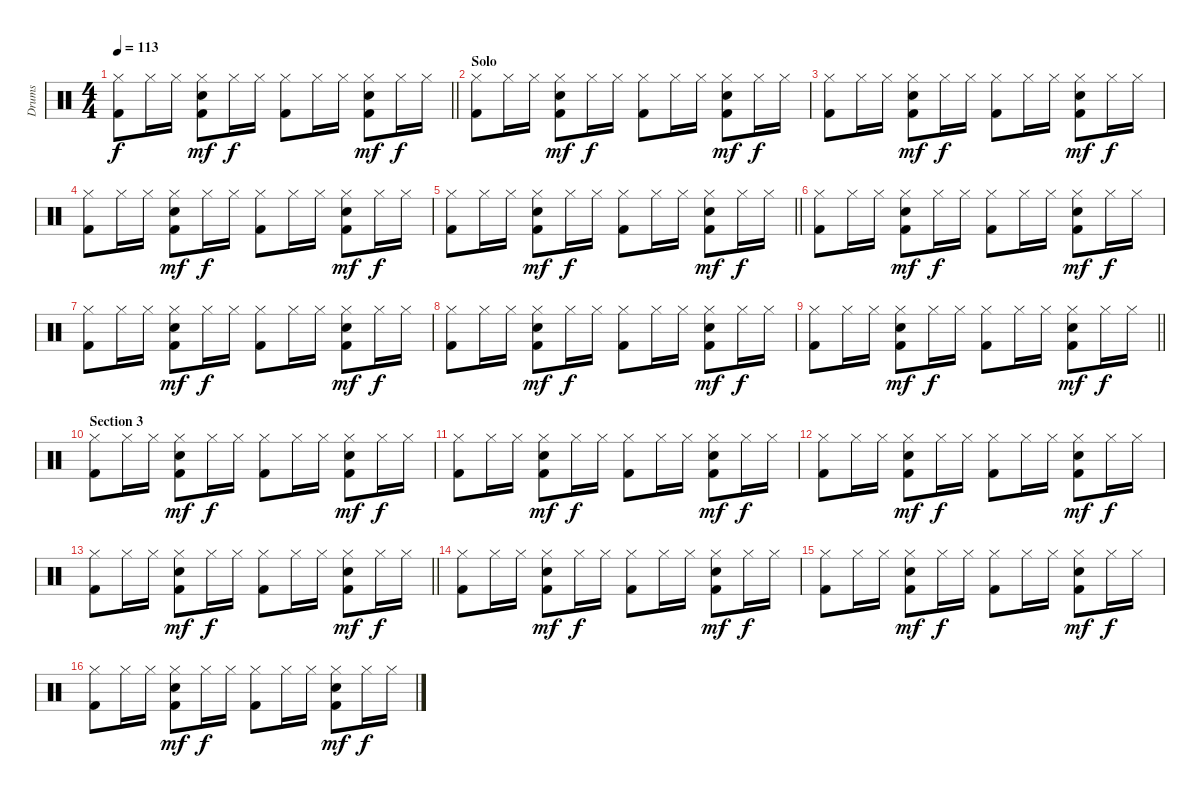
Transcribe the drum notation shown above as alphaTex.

\track ("Drums" "Drums") {instrument percussion}
\staff {score}
\articulation defaults
\ts (4 4)
\tempo 113
\clef neutral
\barLineRight lightlight
\ks c
("Hi-Hat (closed)" "Kick (hit) 2").8{dy f} "Hi-Hat (closed)".16 "Hi-Hat (closed)".16 ("Hi-Hat (closed)" "Snare (hit) 2" "Kick (hit) 2").8{dy mf} "Hi-Hat (closed)".16{dy f} "Hi-Hat (closed)".16 ("Hi-Hat (closed)" "Kick (hit) 2").8 "Hi-Hat (closed)".16 "Hi-Hat (closed)".16 ("Hi-Hat (closed)" "Snare (hit) 2" "Kick (hit) 2").8{dy mf} "Hi-Hat (closed)".16{dy f} "Hi-Hat (closed)".16 |
\section ("" "Solo")
("Hi-Hat (closed)" "Kick (hit) 2").8 "Hi-Hat (closed)".16 "Hi-Hat (closed)".16 ("Hi-Hat (closed)" "Snare (hit) 2" "Kick (hit) 2").8{dy mf} "Hi-Hat (closed)".16{dy f} "Hi-Hat (closed)".16 ("Hi-Hat (closed)" "Kick (hit) 2").8 "Hi-Hat (closed)".16 "Hi-Hat (closed)".16 ("Hi-Hat (closed)" "Snare (hit) 2" "Kick (hit) 2").8{dy mf} "Hi-Hat (closed)".16{dy f} "Hi-Hat (closed)".16 |
("Hi-Hat (closed)" "Kick (hit) 2").8 "Hi-Hat (closed)".16 "Hi-Hat (closed)".16 ("Hi-Hat (closed)" "Snare (hit) 2" "Kick (hit) 2").8{dy mf} "Hi-Hat (closed)".16{dy f} "Hi-Hat (closed)".16 ("Hi-Hat (closed)" "Kick (hit) 2").8 "Hi-Hat (closed)".16 "Hi-Hat (closed)".16 ("Hi-Hat (closed)" "Snare (hit) 2" "Kick (hit) 2").8{dy mf} "Hi-Hat (closed)".16{dy f} "Hi-Hat (closed)".16 |
("Hi-Hat (closed)" "Kick (hit) 2").8 "Hi-Hat (closed)".16 "Hi-Hat (closed)".16 ("Hi-Hat (closed)" "Snare (hit) 2" "Kick (hit) 2").8{dy mf} "Hi-Hat (closed)".16{dy f} "Hi-Hat (closed)".16 ("Hi-Hat (closed)" "Kick (hit) 2").8 "Hi-Hat (closed)".16 "Hi-Hat (closed)".16 ("Hi-Hat (closed)" "Snare (hit) 2" "Kick (hit) 2").8{dy mf} "Hi-Hat (closed)".16{dy f} "Hi-Hat (closed)".16 |
\barLineRight lightlight
("Hi-Hat (closed)" "Kick (hit) 2").8 "Hi-Hat (closed)".16 "Hi-Hat (closed)".16 ("Hi-Hat (closed)" "Snare (hit) 2" "Kick (hit) 2").8{dy mf} "Hi-Hat (closed)".16{dy f} "Hi-Hat (closed)".16 ("Hi-Hat (closed)" "Kick (hit) 2").8 "Hi-Hat (closed)".16 "Hi-Hat (closed)".16 ("Hi-Hat (closed)" "Snare (hit) 2" "Kick (hit) 2").8{dy mf} "Hi-Hat (closed)".16{dy f} "Hi-Hat (closed)".16 |
("Hi-Hat (closed)" "Kick (hit) 2").8 "Hi-Hat (closed)".16 "Hi-Hat (closed)".16 ("Hi-Hat (closed)" "Snare (hit) 2" "Kick (hit) 2").8{dy mf} "Hi-Hat (closed)".16{dy f} "Hi-Hat (closed)".16 ("Hi-Hat (closed)" "Kick (hit) 2").8 "Hi-Hat (closed)".16 "Hi-Hat (closed)".16 ("Hi-Hat (closed)" "Snare (hit) 2" "Kick (hit) 2").8{dy mf} "Hi-Hat (closed)".16{dy f} "Hi-Hat (closed)".16 |
("Hi-Hat (closed)" "Kick (hit) 2").8 "Hi-Hat (closed)".16 "Hi-Hat (closed)".16 ("Hi-Hat (closed)" "Snare (hit) 2" "Kick (hit) 2").8{dy mf} "Hi-Hat (closed)".16{dy f} "Hi-Hat (closed)".16 ("Hi-Hat (closed)" "Kick (hit) 2").8 "Hi-Hat (closed)".16 "Hi-Hat (closed)".16 ("Hi-Hat (closed)" "Snare (hit) 2" "Kick (hit) 2").8{dy mf} "Hi-Hat (closed)".16{dy f} "Hi-Hat (closed)".16 |
("Hi-Hat (closed)" "Kick (hit) 2").8 "Hi-Hat (closed)".16 "Hi-Hat (closed)".16 ("Hi-Hat (closed)" "Snare (hit) 2" "Kick (hit) 2").8{dy mf} "Hi-Hat (closed)".16{dy f} "Hi-Hat (closed)".16 ("Hi-Hat (closed)" "Kick (hit) 2").8 "Hi-Hat (closed)".16 "Hi-Hat (closed)".16 ("Hi-Hat (closed)" "Snare (hit) 2" "Kick (hit) 2").8{dy mf} "Hi-Hat (closed)".16{dy f} "Hi-Hat (closed)".16 |
\barLineRight lightlight
("Hi-Hat (closed)" "Kick (hit) 2").8 "Hi-Hat (closed)".16 "Hi-Hat (closed)".16 ("Hi-Hat (closed)" "Snare (hit) 2" "Kick (hit) 2").8{dy mf} "Hi-Hat (closed)".16{dy f} "Hi-Hat (closed)".16 ("Hi-Hat (closed)" "Kick (hit) 2").8 "Hi-Hat (closed)".16 "Hi-Hat (closed)".16 ("Hi-Hat (closed)" "Snare (hit) 2" "Kick (hit) 2").8{dy mf} "Hi-Hat (closed)".16{dy f} "Hi-Hat (closed)".16 |
\section ("" "Section 3")
("Hi-Hat (closed)" "Kick (hit) 2").8 "Hi-Hat (closed)".16 "Hi-Hat (closed)".16 ("Hi-Hat (closed)" "Snare (hit) 2" "Kick (hit) 2").8{dy mf} "Hi-Hat (closed)".16{dy f} "Hi-Hat (closed)".16 ("Hi-Hat (closed)" "Kick (hit) 2").8 "Hi-Hat (closed)".16 "Hi-Hat (closed)".16 ("Hi-Hat (closed)" "Snare (hit) 2" "Kick (hit) 2").8{dy mf} "Hi-Hat (closed)".16{dy f} "Hi-Hat (closed)".16 |
("Hi-Hat (closed)" "Kick (hit) 2").8 "Hi-Hat (closed)".16 "Hi-Hat (closed)".16 ("Hi-Hat (closed)" "Snare (hit) 2" "Kick (hit) 2").8{dy mf} "Hi-Hat (closed)".16{dy f} "Hi-Hat (closed)".16 ("Hi-Hat (closed)" "Kick (hit) 2").8 "Hi-Hat (closed)".16 "Hi-Hat (closed)".16 ("Hi-Hat (closed)" "Snare (hit) 2" "Kick (hit) 2").8{dy mf} "Hi-Hat (closed)".16{dy f} "Hi-Hat (closed)".16 |
("Hi-Hat (closed)" "Kick (hit) 2").8 "Hi-Hat (closed)".16 "Hi-Hat (closed)".16 ("Hi-Hat (closed)" "Snare (hit) 2" "Kick (hit) 2").8{dy mf} "Hi-Hat (closed)".16{dy f} "Hi-Hat (closed)".16 ("Hi-Hat (closed)" "Kick (hit) 2").8 "Hi-Hat (closed)".16 "Hi-Hat (closed)".16 ("Hi-Hat (closed)" "Snare (hit) 2" "Kick (hit) 2").8{dy mf} "Hi-Hat (closed)".16{dy f} "Hi-Hat (closed)".16 |
\barLineRight lightlight
("Hi-Hat (closed)" "Kick (hit) 2").8 "Hi-Hat (closed)".16 "Hi-Hat (closed)".16 ("Hi-Hat (closed)" "Snare (hit) 2" "Kick (hit) 2").8{dy mf} "Hi-Hat (closed)".16{dy f} "Hi-Hat (closed)".16 ("Hi-Hat (closed)" "Kick (hit) 2").8 "Hi-Hat (closed)".16 "Hi-Hat (closed)".16 ("Hi-Hat (closed)" "Snare (hit) 2" "Kick (hit) 2").8{dy mf} "Hi-Hat (closed)".16{dy f} "Hi-Hat (closed)".16 |
("Hi-Hat (closed)" "Kick (hit) 2").8 "Hi-Hat (closed)".16 "Hi-Hat (closed)".16 ("Hi-Hat (closed)" "Snare (hit) 2" "Kick (hit) 2").8{dy mf} "Hi-Hat (closed)".16{dy f} "Hi-Hat (closed)".16 ("Hi-Hat (closed)" "Kick (hit) 2").8 "Hi-Hat (closed)".16 "Hi-Hat (closed)".16 ("Hi-Hat (closed)" "Snare (hit) 2" "Kick (hit) 2").8{dy mf} "Hi-Hat (closed)".16{dy f} "Hi-Hat (closed)".16 |
("Hi-Hat (closed)" "Kick (hit) 2").8 "Hi-Hat (closed)".16 "Hi-Hat (closed)".16 ("Hi-Hat (closed)" "Snare (hit) 2" "Kick (hit) 2").8{dy mf} "Hi-Hat (closed)".16{dy f} "Hi-Hat (closed)".16 ("Hi-Hat (closed)" "Kick (hit) 2").8 "Hi-Hat (closed)".16 "Hi-Hat (closed)".16 ("Hi-Hat (closed)" "Snare (hit) 2" "Kick (hit) 2").8{dy mf} "Hi-Hat (closed)".16{dy f} "Hi-Hat (closed)".16 |
("Hi-Hat (closed)" "Kick (hit) 2").8 "Hi-Hat (closed)".16 "Hi-Hat (closed)".16 ("Hi-Hat (closed)" "Snare (hit) 2" "Kick (hit) 2").8{dy mf} "Hi-Hat (closed)".16{dy f} "Hi-Hat (closed)".16 ("Hi-Hat (closed)" "Kick (hit) 2").8 "Hi-Hat (closed)".16 "Hi-Hat (closed)".16 ("Hi-Hat (closed)" "Snare (hit) 2" "Kick (hit) 2").8{dy mf} "Hi-Hat (closed)".16{dy f} "Hi-Hat (closed)".16
